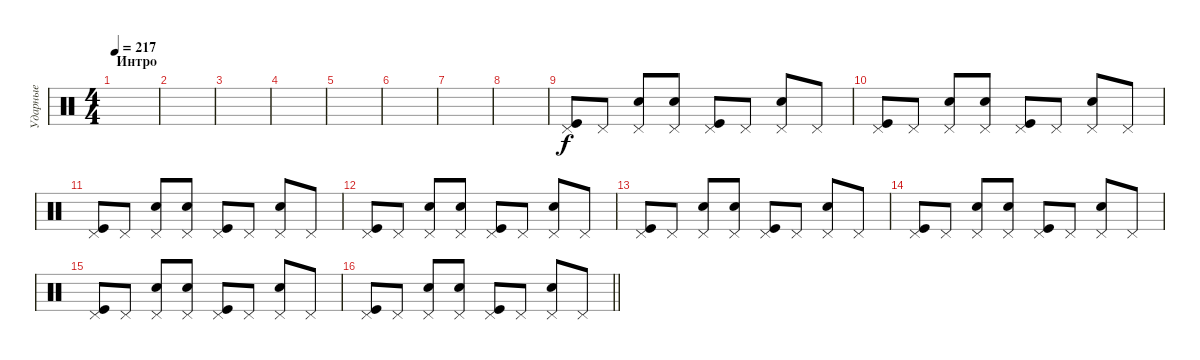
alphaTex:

\track ("Ударные" "Ударные") {instrument percussion}
\staff {score}
\articulation defaults
\ts (4 4)
\section ("" "Интро")
\tempo 217
\clef neutral
\ks c
|
|
|
|
|
|
|
|
("Pedal Hi-Hat (hit)" "Kick (hit)").8 "Pedal Hi-Hat (hit)".8 ("Pedal Hi-Hat (hit)" "Snare (hit) 2").8 ("Pedal Hi-Hat (hit)" "Snare (hit) 2").8 ("Pedal Hi-Hat (hit)" "Kick (hit)").8 "Pedal Hi-Hat (hit)".8 ("Pedal Hi-Hat (hit)" "Snare (hit) 2").8 "Pedal Hi-Hat (hit)".8 |
("Pedal Hi-Hat (hit)" "Kick (hit)").8 "Pedal Hi-Hat (hit)".8 ("Pedal Hi-Hat (hit)" "Snare (hit) 2").8 ("Pedal Hi-Hat (hit)" "Snare (hit) 2").8 ("Pedal Hi-Hat (hit)" "Kick (hit)").8 "Pedal Hi-Hat (hit)".8 ("Pedal Hi-Hat (hit)" "Snare (hit) 2").8 "Pedal Hi-Hat (hit)".8 |
("Pedal Hi-Hat (hit)" "Kick (hit)").8 "Pedal Hi-Hat (hit)".8 ("Pedal Hi-Hat (hit)" "Snare (hit) 2").8 ("Pedal Hi-Hat (hit)" "Snare (hit) 2").8 ("Pedal Hi-Hat (hit)" "Kick (hit)").8 "Pedal Hi-Hat (hit)".8 ("Pedal Hi-Hat (hit)" "Snare (hit) 2").8 "Pedal Hi-Hat (hit)".8 |
("Pedal Hi-Hat (hit)" "Kick (hit)").8 "Pedal Hi-Hat (hit)".8 ("Pedal Hi-Hat (hit)" "Snare (hit) 2").8 ("Pedal Hi-Hat (hit)" "Snare (hit) 2").8 ("Pedal Hi-Hat (hit)" "Kick (hit)").8 "Pedal Hi-Hat (hit)".8 ("Pedal Hi-Hat (hit)" "Snare (hit) 2").8 "Pedal Hi-Hat (hit)".8 |
("Pedal Hi-Hat (hit)" "Kick (hit)").8 "Pedal Hi-Hat (hit)".8 ("Pedal Hi-Hat (hit)" "Snare (hit) 2").8 ("Pedal Hi-Hat (hit)" "Snare (hit) 2").8 ("Pedal Hi-Hat (hit)" "Kick (hit)").8 "Pedal Hi-Hat (hit)".8 ("Pedal Hi-Hat (hit)" "Snare (hit) 2").8 "Pedal Hi-Hat (hit)".8 |
("Pedal Hi-Hat (hit)" "Kick (hit)").8 "Pedal Hi-Hat (hit)".8 ("Pedal Hi-Hat (hit)" "Snare (hit) 2").8 ("Pedal Hi-Hat (hit)" "Snare (hit) 2").8 ("Pedal Hi-Hat (hit)" "Kick (hit)").8 "Pedal Hi-Hat (hit)".8 ("Pedal Hi-Hat (hit)" "Snare (hit) 2").8 "Pedal Hi-Hat (hit)".8 |
("Pedal Hi-Hat (hit)" "Kick (hit)").8 "Pedal Hi-Hat (hit)".8 ("Pedal Hi-Hat (hit)" "Snare (hit) 2").8 ("Pedal Hi-Hat (hit)" "Snare (hit) 2").8 ("Pedal Hi-Hat (hit)" "Kick (hit)").8 "Pedal Hi-Hat (hit)".8 ("Pedal Hi-Hat (hit)" "Snare (hit) 2").8 "Pedal Hi-Hat (hit)".8 |
\barLineRight lightlight
("Pedal Hi-Hat (hit)" "Kick (hit)").8 "Pedal Hi-Hat (hit)".8 ("Pedal Hi-Hat (hit)" "Snare (hit) 2").8 ("Pedal Hi-Hat (hit)" "Snare (hit) 2").8 ("Pedal Hi-Hat (hit)" "Kick (hit)").8 "Pedal Hi-Hat (hit)".8 ("Pedal Hi-Hat (hit)" "Snare (hit) 2").8 "Pedal Hi-Hat (hit)".8
